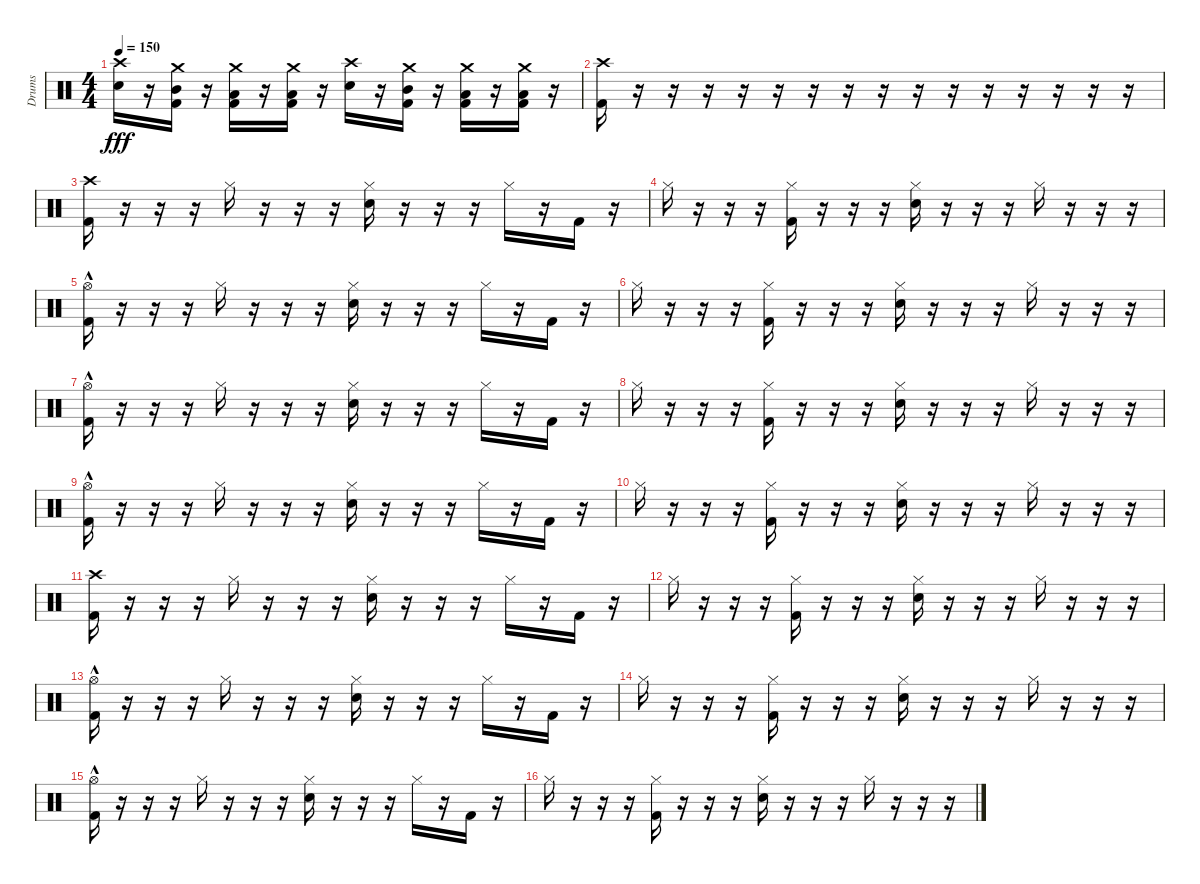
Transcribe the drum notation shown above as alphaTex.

\track ("Drums" "Drums") {instrument percussion}
\staff {score}
\articulation defaults
\ts (4 4)
\tempo 150
\clef neutral
\ks c
("Crash high (hit)" "Electric Snare (hit)").16{dy fff} r.16 ("Crash medium (hit)" "Mid Tom (hit)" "Kick (hit) 2").16 r.16 ("Crash medium (hit)" "Low Tom (hit)" "Kick (hit) 2").16 r.16 ("Crash medium (hit)" "Low Tom (hit)" "Kick (hit) 2").16 r.16 ("Crash high (hit)" "Electric Snare (hit)").16 r.16 ("Crash medium (hit)" "Mid Tom (hit)" "Kick (hit) 2").16 r.16 ("Crash medium (hit)" "Low Tom (hit)" "Kick (hit) 2").16 r.16 ("Crash medium (hit)" "Low Tom (hit)" "Kick (hit) 2").16 r.16 |
("Crash high (hit)" "Kick (hit) 2").16 r.16 r.16 r.16 r.16 r.16 r.16 r.16 r.16 r.16 r.16 r.16 r.16 r.16 r.16 r.16 |
("Crash high (hit)" "Kick (hit) 2").16 r.16 r.16 r.16 "Hi-Hat (closed)".16 r.16 r.16 r.16 ("Hi-Hat (closed)" "Electric Snare (hit)").16 r.16 r.16 r.16 "Hi-Hat (closed)".16 r.16 "Kick (hit) 2".16 r.16 |
"Hi-Hat (closed)".16 r.16 r.16 r.16 ("Hi-Hat (closed)" "Kick (hit) 2").16 r.16 r.16 r.16 ("Hi-Hat (closed)" "Electric Snare (hit)").16 r.16 r.16 r.16 "Hi-Hat (closed)".16 r.16 r.16 r.16 |
("Hi-Hat (open)"{hac} "Kick (hit) 2").16 r.16 r.16 r.16 "Hi-Hat (closed)".16 r.16 r.16 r.16 ("Hi-Hat (closed)" "Electric Snare (hit)").16 r.16 r.16 r.16 "Hi-Hat (closed)".16 r.16 "Kick (hit) 2".16 r.16 |
"Hi-Hat (closed)".16 r.16 r.16 r.16 ("Hi-Hat (closed)" "Kick (hit) 2").16 r.16 r.16 r.16 ("Hi-Hat (closed)" "Electric Snare (hit)").16 r.16 r.16 r.16 "Hi-Hat (closed)".16 r.16 r.16 r.16 |
("Hi-Hat (open)"{hac} "Kick (hit) 2").16 r.16 r.16 r.16 "Hi-Hat (closed)".16 r.16 r.16 r.16 ("Hi-Hat (closed)" "Electric Snare (hit)").16 r.16 r.16 r.16 "Hi-Hat (closed)".16 r.16 "Kick (hit) 2".16 r.16 |
"Hi-Hat (closed)".16 r.16 r.16 r.16 ("Hi-Hat (closed)" "Kick (hit) 2").16 r.16 r.16 r.16 ("Hi-Hat (closed)" "Electric Snare (hit)").16 r.16 r.16 r.16 "Hi-Hat (closed)".16 r.16 r.16 r.16 |
("Hi-Hat (open)"{hac} "Kick (hit) 2").16 r.16 r.16 r.16 "Hi-Hat (closed)".16 r.16 r.16 r.16 ("Hi-Hat (closed)" "Electric Snare (hit)").16 r.16 r.16 r.16 "Hi-Hat (closed)".16 r.16 "Kick (hit) 2".16 r.16 |
"Hi-Hat (closed)".16 r.16 r.16 r.16 ("Hi-Hat (closed)" "Kick (hit) 2").16 r.16 r.16 r.16 ("Hi-Hat (closed)" "Electric Snare (hit)").16 r.16 r.16 r.16 "Hi-Hat (closed)".16 r.16 r.16 r.16 |
("Crash high (hit)" "Kick (hit) 2").16 r.16 r.16 r.16 "Hi-Hat (closed)".16 r.16 r.16 r.16 ("Hi-Hat (closed)" "Electric Snare (hit)").16 r.16 r.16 r.16 "Hi-Hat (closed)".16 r.16 "Kick (hit) 2".16 r.16 |
"Hi-Hat (closed)".16 r.16 r.16 r.16 ("Hi-Hat (closed)" "Kick (hit) 2").16 r.16 r.16 r.16 ("Hi-Hat (closed)" "Electric Snare (hit)").16 r.16 r.16 r.16 "Hi-Hat (closed)".16 r.16 r.16 r.16 |
("Hi-Hat (open)"{hac} "Kick (hit) 2").16 r.16 r.16 r.16 "Hi-Hat (closed)".16 r.16 r.16 r.16 ("Hi-Hat (closed)" "Electric Snare (hit)").16 r.16 r.16 r.16 "Hi-Hat (closed)".16 r.16 "Kick (hit) 2".16 r.16 |
"Hi-Hat (closed)".16 r.16 r.16 r.16 ("Hi-Hat (closed)" "Kick (hit) 2").16 r.16 r.16 r.16 ("Hi-Hat (closed)" "Electric Snare (hit)").16 r.16 r.16 r.16 "Hi-Hat (closed)".16 r.16 r.16 r.16 |
("Hi-Hat (open)"{hac} "Kick (hit) 2").16 r.16 r.16 r.16 "Hi-Hat (closed)".16 r.16 r.16 r.16 ("Hi-Hat (closed)" "Electric Snare (hit)").16 r.16 r.16 r.16 "Hi-Hat (closed)".16 r.16 "Kick (hit) 2".16 r.16 |
"Hi-Hat (closed)".16 r.16 r.16 r.16 ("Hi-Hat (closed)" "Kick (hit) 2").16 r.16 r.16 r.16 ("Hi-Hat (closed)" "Electric Snare (hit)").16 r.16 r.16 r.16 "Hi-Hat (closed)".16 r.16 r.16 r.16
